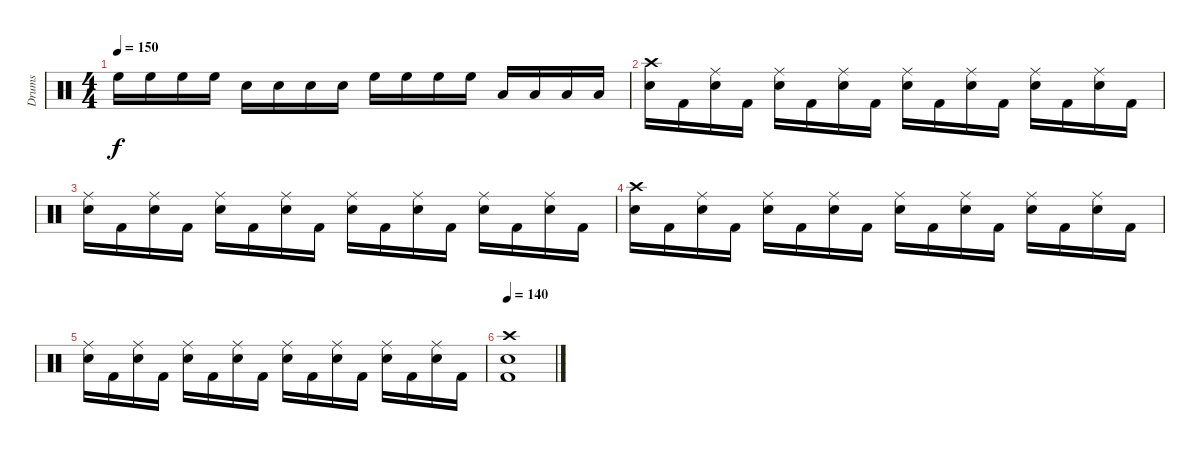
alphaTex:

\track ("Drums" "Drums") {instrument percussion}
\staff {score}
\articulation defaults
\ts (4 4)
\tempo 150
\clef neutral
\ks c "High Floor Tom (hit)".16{dy f} "High Floor Tom (hit)".16 "High Floor Tom (hit)".16 "High Floor Tom (hit)".16 "Snare (hit) 2".16 "Snare (hit) 2".16 "Snare (hit) 2".16 "Snare (hit) 2".16 "High Floor Tom (hit)".16 "High Floor Tom (hit)".16 "High Floor Tom (hit)".16 "High Floor Tom (hit)".16 "Low Floor Tom (hit)".16 "Low Floor Tom (hit)".16 "Low Floor Tom (hit)".16 "Low Floor Tom (hit)".16
|
("Crash high (hit)" "Snare (hit) 2").16 "Kick (hit) 2".16 ("Ride (middle)" "Snare (hit) 2").16 "Kick (hit) 2".16 ("Ride (middle)" "Snare (hit) 2").16 "Kick (hit) 2".16 ("Ride (middle)" "Snare (hit) 2").16 "Kick (hit) 2".16 ("Ride (middle)" "Snare (hit) 2").16 "Kick (hit) 2".16 ("Ride (middle)" "Snare (hit) 2").16 "Kick (hit) 2".16 ("Ride (middle)" "Snare (hit) 2").16 "Kick (hit) 2".16 ("Ride (middle)" "Snare (hit) 2").16 "Kick (hit) 2".16 |
("Ride (middle)" "Snare (hit) 2").16 "Kick (hit) 2".16 ("Ride (middle)" "Snare (hit) 2").16 "Kick (hit) 2".16 ("Ride (middle)" "Snare (hit) 2").16 "Kick (hit) 2".16 ("Ride (middle)" "Snare (hit) 2").16 "Kick (hit) 2".16 ("Ride (middle)" "Snare (hit) 2").16 "Kick (hit) 2".16 ("Ride (middle)" "Snare (hit) 2").16 "Kick (hit) 2".16 ("Ride (middle)" "Snare (hit) 2").16 "Kick (hit) 2".16 ("Ride (middle)" "Snare (hit) 2").16 "Kick (hit) 2".16 |
("Crash high (hit)" "Snare (hit) 2").16 "Kick (hit) 2".16 ("Ride (middle)" "Snare (hit) 2").16 "Kick (hit) 2".16 ("Ride (middle)" "Snare (hit) 2").16 "Kick (hit) 2".16 ("Ride (middle)" "Snare (hit) 2").16 "Kick (hit) 2".16 ("Ride (middle)" "Snare (hit) 2").16 "Kick (hit) 2".16 ("Ride (middle)" "Snare (hit) 2").16 "Kick (hit) 2".16 ("Ride (middle)" "Snare (hit) 2").16 "Kick (hit) 2".16 ("Ride (middle)" "Snare (hit) 2").16 "Kick (hit) 2".16 |
("Ride (middle)" "Snare (hit) 2").16 "Kick (hit) 2".16 ("Ride (middle)" "Snare (hit) 2").16 "Kick (hit) 2".16 ("Ride (middle)" "Snare (hit) 2").16 "Kick (hit) 2".16 ("Ride (middle)" "Snare (hit) 2").16 "Kick (hit) 2".16 ("Ride (middle)" "Snare (hit) 2").16 "Kick (hit) 2".16 ("Ride (middle)" "Snare (hit) 2").16 "Kick (hit) 2".16 ("Ride (middle)" "Snare (hit) 2").16 "Kick (hit) 2".16 ("Ride (middle)" "Snare (hit) 2").16 "Kick (hit) 2".16 |
\tempo 140
("Crash high (hit)" "Snare (hit) 2" "Kick (hit) 2").1
